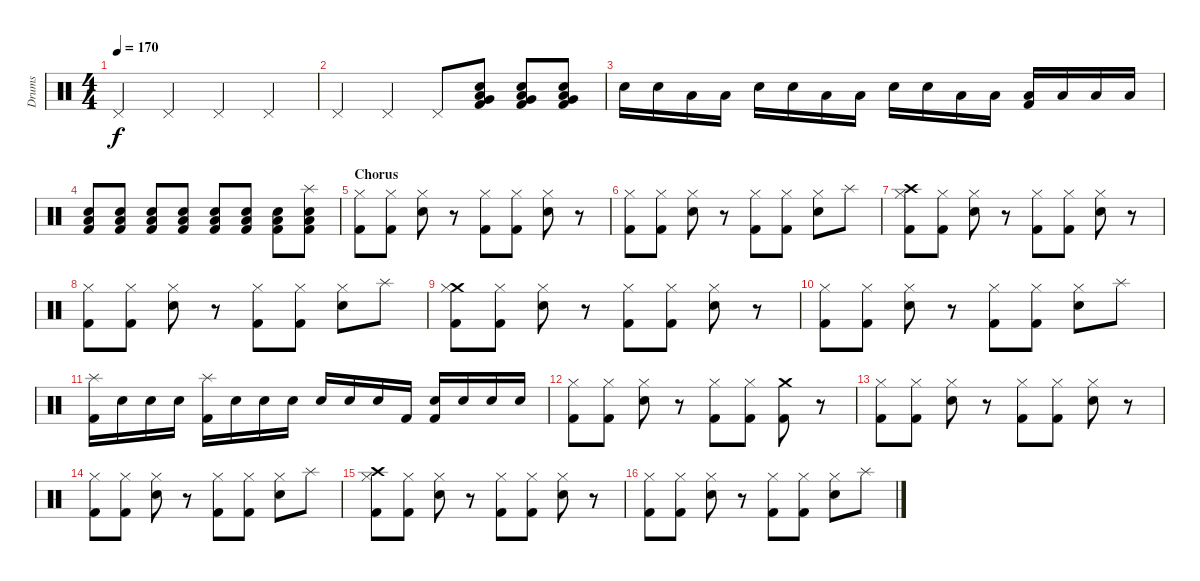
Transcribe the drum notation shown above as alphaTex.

\track ("Drums" "Drums") {instrument percussion}
\staff {score}
\articulation defaults
\ts (4 4)
\tempo 170
\clef neutral
\ks c "Pedal Hi-Hat (hit)".4{dy f} "Pedal Hi-Hat (hit)".4 "Pedal Hi-Hat (hit)".4 "Pedal Hi-Hat (hit)".4
|
"Pedal Hi-Hat (hit)".4 "Pedal Hi-Hat (hit)".4 "Pedal Hi-Hat (hit)".8 ("Very Low Tom (hit)" "Low Tom (hit)" "Snare (hit) 2" "Kick (hit) 2").8 ("Very Low Tom (hit)" "Low Tom (hit)" "Snare (hit) 2" "Kick (hit) 2").8 ("Very Low Tom (hit)" "Low Tom (hit)" "Snare (hit) 2" "Kick (hit) 2").8 |
"Snare (hit) 2".16 "Snare (hit) 2".16 "Low Tom (hit)".16 "Low Tom (hit)".16 "Snare (hit) 2".16 "Snare (hit) 2".16 "Low Tom (hit)".16 "Low Tom (hit)".16 "Snare (hit) 2".16 "Snare (hit) 2".16 "Low Tom (hit)".16 "Low Tom (hit)".16 ("Low Tom (hit)" "Kick (hit) 2").16 "Low Tom (hit)".16 "Low Tom (hit)".16 "Low Tom (hit)".16 |
("Low Tom (hit)" "Snare (hit) 2" "Kick (hit) 2").8 ("Low Tom (hit)" "Snare (hit) 2" "Kick (hit) 2").8 ("Low Tom (hit)" "Snare (hit) 2" "Kick (hit) 2").8 ("Low Tom (hit)" "Snare (hit) 2" "Kick (hit) 2").8 ("Low Tom (hit)" "Snare (hit) 2" "Kick (hit) 2").8 ("Low Tom (hit)" "Snare (hit) 2" "Kick (hit) 2").8 ("Low Tom (hit)" "Snare (hit) 2" "Kick (hit) 2").8 ("Splash (hit)" "Low Tom (hit)" "Snare (hit) 2" "Kick (hit) 2").8 |
\section ("" "Chorus")
("Hi-Hat (closed)" "Kick (hit) 2").8 ("Hi-Hat (closed)" "Kick (hit) 2").8 ("Hi-Hat (closed)" "Snare (hit) 2").8 r.8 ("Hi-Hat (closed)" "Kick (hit) 2").8 ("Hi-Hat (closed)" "Kick (hit) 2").8 ("Hi-Hat (closed)" "Snare (hit) 2").8 r.8 |
("Hi-Hat (closed)" "Kick (hit) 2").8 ("Hi-Hat (closed)" "Kick (hit) 2").8 ("Hi-Hat (closed)" "Snare (hit) 2").8 r.8 ("Hi-Hat (closed)" "Kick (hit) 2").8 ("Hi-Hat (closed)" "Kick (hit) 2").8 ("Hi-Hat (closed)" "Snare (hit) 2").8 "Splash (hit)".8 |
("Crash high (hit)" "Hi-Hat (closed)" "Kick (hit) 2").8 ("Hi-Hat (closed)" "Kick (hit) 2").8 ("Hi-Hat (closed)" "Snare (hit) 2").8 r.8 ("Hi-Hat (closed)" "Kick (hit) 2").8 ("Hi-Hat (closed)" "Kick (hit) 2").8 ("Hi-Hat (closed)" "Snare (hit) 2").8 r.8 |
("Hi-Hat (closed)" "Kick (hit) 2").8 ("Hi-Hat (closed)" "Kick (hit) 2").8 ("Hi-Hat (closed)" "Snare (hit) 2").8 r.8 ("Hi-Hat (closed)" "Kick (hit) 2").8 ("Hi-Hat (closed)" "Kick (hit) 2").8 ("Hi-Hat (closed)" "Snare (hit) 2").8 "Splash (hit)".8 |
("Crash medium (hit)" "Hi-Hat (closed)" "Kick (hit) 2").8 ("Hi-Hat (closed)" "Kick (hit) 2").8 ("Hi-Hat (closed)" "Snare (hit) 2").8 r.8 ("Hi-Hat (closed)" "Kick (hit) 2").8 ("Hi-Hat (closed)" "Kick (hit) 2").8 ("Hi-Hat (closed)" "Snare (hit) 2").8 r.8 |
("Hi-Hat (closed)" "Kick (hit) 2").8 ("Hi-Hat (closed)" "Kick (hit) 2").8 ("Hi-Hat (closed)" "Snare (hit) 2").8 r.8 ("Hi-Hat (closed)" "Kick (hit) 2").8 ("Hi-Hat (closed)" "Kick (hit) 2").8 ("Hi-Hat (closed)" "Snare (hit) 2").8 "Splash (hit)".8 |
("Splash (hit)" "Kick (hit) 2").16 "Snare (hit) 2".16 "Snare (hit) 2".16 "Snare (hit) 2".16 ("Splash (hit)" "Kick (hit) 2").16 "Snare (hit) 2".16 "Snare (hit) 2".16 "Snare (hit) 2".16 "Snare (hit) 2".16 "Snare (hit) 2".16 "Snare (hit) 2".16 "Kick (hit) 2".16 ("Snare (hit) 2" "Kick (hit) 2").16 "Snare (hit) 2".16 "Snare (hit) 2".16 "Snare (hit) 2".16 |
("Hi-Hat (closed)" "Kick (hit) 2").8 ("Hi-Hat (closed)" "Kick (hit) 2").8 ("Hi-Hat (closed)" "Snare (hit) 2").8 r.8 ("Hi-Hat (closed)" "Kick (hit) 2").8 ("Hi-Hat (closed)" "Kick (hit) 2").8 ("Crash medium (hit)" "Kick (hit) 2").8 r.8 |
("Hi-Hat (closed)" "Kick (hit) 2").8 ("Hi-Hat (closed)" "Kick (hit) 2").8 ("Hi-Hat (closed)" "Snare (hit) 2").8 r.8 ("Hi-Hat (closed)" "Kick (hit) 2").8 ("Hi-Hat (closed)" "Kick (hit) 2").8 ("Hi-Hat (closed)" "Snare (hit) 2").8 r.8 |
("Hi-Hat (closed)" "Kick (hit) 2").8 ("Hi-Hat (closed)" "Kick (hit) 2").8 ("Hi-Hat (closed)" "Snare (hit) 2").8 r.8 ("Hi-Hat (closed)" "Kick (hit) 2").8 ("Hi-Hat (closed)" "Kick (hit) 2").8 ("Hi-Hat (closed)" "Snare (hit) 2").8 "Splash (hit)".8 |
("Crash high (hit)" "Hi-Hat (closed)" "Kick (hit) 2").8 ("Hi-Hat (closed)" "Kick (hit) 2").8 ("Hi-Hat (closed)" "Snare (hit) 2").8 r.8 ("Hi-Hat (closed)" "Kick (hit) 2").8 ("Hi-Hat (closed)" "Kick (hit) 2").8 ("Hi-Hat (closed)" "Snare (hit) 2").8 r.8 |
("Hi-Hat (closed)" "Kick (hit) 2").8 ("Hi-Hat (closed)" "Kick (hit) 2").8 ("Hi-Hat (closed)" "Snare (hit) 2").8 r.8 ("Hi-Hat (closed)" "Kick (hit) 2").8 ("Hi-Hat (closed)" "Kick (hit) 2").8 ("Hi-Hat (closed)" "Snare (hit) 2").8 "Splash (hit)".8
